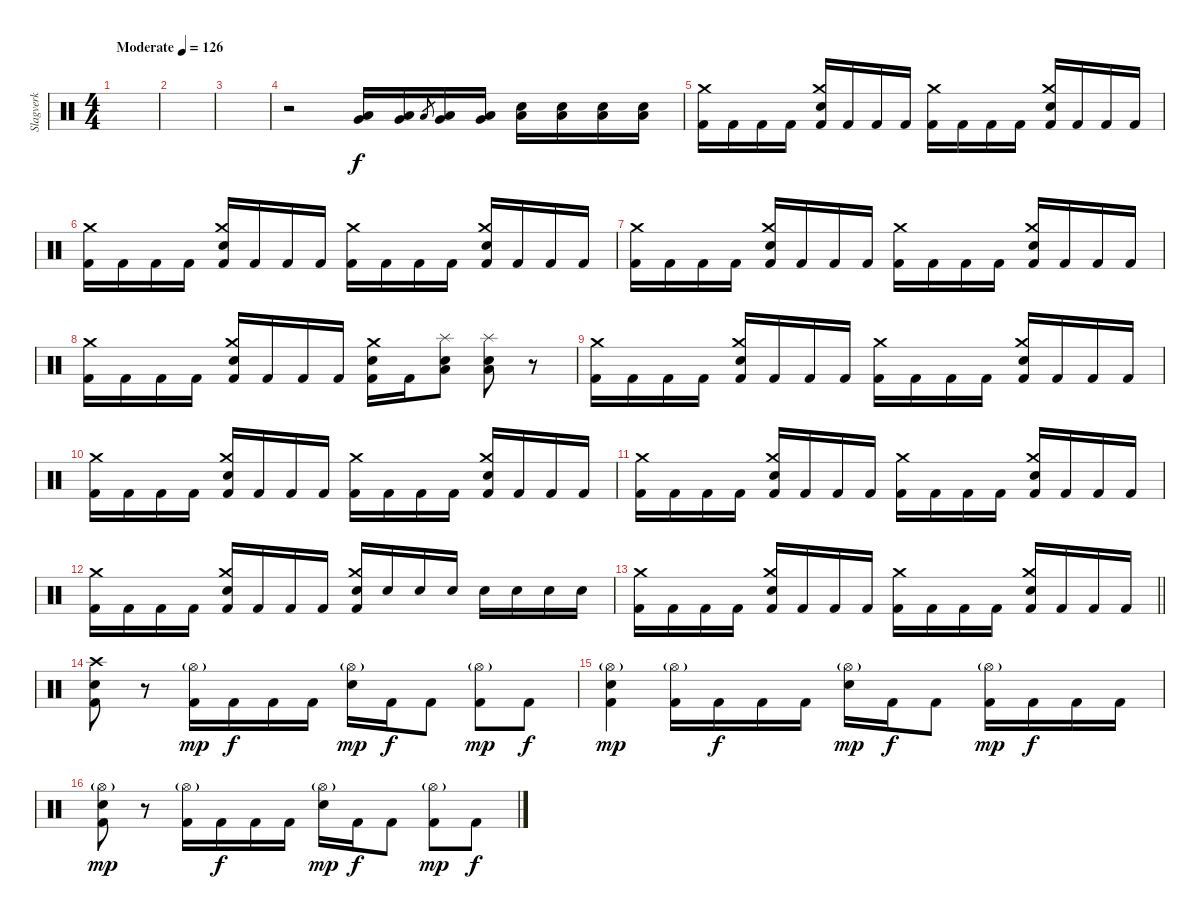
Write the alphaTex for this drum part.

\track ("Slagverk" "Slagverk") {instrument percussion}
\staff {score}
\articulation defaults
\ts (4 4)
\tempo (126 "Moderate")
\clef neutral
\ks c
|
|
|
r.2 ("Very Low Tom (hit)" "Low Floor Tom (hit)").16 ("Very Low Tom (hit)" "Low Floor Tom (hit)").16 "Low Floor Tom (hit)".8{gr} ("Very Low Tom (hit)" "Low Floor Tom (hit)").16 ("Very Low Tom (hit)" "Low Floor Tom (hit)").16 ("Electric Snare (hit)" "Low Floor Tom (hit)").16 ("Electric Snare (hit)" "Low Floor Tom (hit)").16 ("Electric Snare (hit)" "Low Floor Tom (hit)").16 ("Electric Snare (hit)" "Low Floor Tom (hit)").16 |
("Crash medium (hit)" "Kick (hit) 2").16 "Kick (hit) 2".16 "Kick (hit) 2".16 "Kick (hit) 2".16 ("Electric Snare (hit)" "Kick (hit) 2" "Crash medium (hit)").16 "Kick (hit) 2".16 "Kick (hit) 2".16 "Kick (hit) 2".16 ("Crash medium (hit)" "Kick (hit) 2").16 "Kick (hit) 2".16 "Kick (hit) 2".16 "Kick (hit) 2".16 ("Electric Snare (hit)" "Kick (hit) 2" "Crash medium (hit)").16 "Kick (hit) 2".16 "Kick (hit) 2".16 "Kick (hit) 2".16 |
("Crash medium (hit)" "Kick (hit) 2").16 "Kick (hit) 2".16 "Kick (hit) 2".16 "Kick (hit) 2".16 ("Electric Snare (hit)" "Kick (hit) 2" "Crash medium (hit)").16 "Kick (hit) 2".16 "Kick (hit) 2".16 "Kick (hit) 2".16 ("Crash medium (hit)" "Kick (hit) 2").16 "Kick (hit) 2".16 "Kick (hit) 2".16 "Kick (hit) 2".16 ("Electric Snare (hit)" "Kick (hit) 2" "Crash medium (hit)").16 "Kick (hit) 2".16 "Kick (hit) 2".16 "Kick (hit) 2".16 |
("Crash medium (hit)" "Kick (hit) 2").16 "Kick (hit) 2".16 "Kick (hit) 2".16 "Kick (hit) 2".16 ("Electric Snare (hit)" "Kick (hit) 2" "Crash medium (hit)").16 "Kick (hit) 2".16 "Kick (hit) 2".16 "Kick (hit) 2".16 ("Crash medium (hit)" "Kick (hit) 2").16 "Kick (hit) 2".16 "Kick (hit) 2".16 "Kick (hit) 2".16 ("Electric Snare (hit)" "Kick (hit) 2" "Crash medium (hit)").16 "Kick (hit) 2".16 "Kick (hit) 2".16 "Kick (hit) 2".16 |
("Crash medium (hit)" "Kick (hit) 2").16 "Kick (hit) 2".16 "Kick (hit) 2".16 "Kick (hit) 2".16 ("Electric Snare (hit)" "Kick (hit) 2" "Crash medium (hit)").16 "Kick (hit) 2".16 "Kick (hit) 2".16 "Kick (hit) 2".16 ("Electric Snare (hit)" "Kick (hit) 2" "Crash medium (hit)").16 "Kick (hit) 2".16 ("Electric Snare (hit)" "Low Floor Tom (hit)" "Splash (hit)").8 ("Electric Snare (hit)" "Low Floor Tom (hit)" "Splash (hit)").8 r.8 |
("Crash medium (hit)" "Kick (hit) 2").16 "Kick (hit) 2".16 "Kick (hit) 2".16 "Kick (hit) 2".16 ("Electric Snare (hit)" "Kick (hit) 2" "Crash medium (hit)").16 "Kick (hit) 2".16 "Kick (hit) 2".16 "Kick (hit) 2".16 ("Crash medium (hit)" "Kick (hit) 2").16 "Kick (hit) 2".16 "Kick (hit) 2".16 "Kick (hit) 2".16 ("Electric Snare (hit)" "Kick (hit) 2" "Crash medium (hit)").16 "Kick (hit) 2".16 "Kick (hit) 2".16 "Kick (hit) 2".16 |
("Crash medium (hit)" "Kick (hit) 2").16 "Kick (hit) 2".16 "Kick (hit) 2".16 "Kick (hit) 2".16 ("Electric Snare (hit)" "Kick (hit) 2" "Crash medium (hit)").16 "Kick (hit) 2".16 "Kick (hit) 2".16 "Kick (hit) 2".16 ("Crash medium (hit)" "Kick (hit) 2").16 "Kick (hit) 2".16 "Kick (hit) 2".16 "Kick (hit) 2".16 ("Electric Snare (hit)" "Kick (hit) 2" "Crash medium (hit)").16 "Kick (hit) 2".16 "Kick (hit) 2".16 "Kick (hit) 2".16 |
("Crash medium (hit)" "Kick (hit) 2").16 "Kick (hit) 2".16 "Kick (hit) 2".16 "Kick (hit) 2".16 ("Electric Snare (hit)" "Kick (hit) 2" "Crash medium (hit)").16 "Kick (hit) 2".16 "Kick (hit) 2".16 "Kick (hit) 2".16 ("Crash medium (hit)" "Kick (hit) 2").16 "Kick (hit) 2".16 "Kick (hit) 2".16 "Kick (hit) 2".16 ("Electric Snare (hit)" "Kick (hit) 2" "Crash medium (hit)").16 "Kick (hit) 2".16 "Kick (hit) 2".16 "Kick (hit) 2".16 |
("Crash medium (hit)" "Kick (hit) 2").16 "Kick (hit) 2".16 "Kick (hit) 2".16 "Kick (hit) 2".16 ("Electric Snare (hit)" "Kick (hit) 2" "Crash medium (hit)").16 "Kick (hit) 2".16 "Kick (hit) 2".16 "Kick (hit) 2".16 ("Electric Snare (hit)" "Kick (hit) 2" "Crash medium (hit)").16 "Electric Snare (hit)".16 "Electric Snare (hit)".16 "Electric Snare (hit)".16 "Electric Snare (hit)".16 "Electric Snare (hit)".16 "Electric Snare (hit)".16 "Electric Snare (hit)".16 |
\barLineRight lightlight
("Crash medium (hit)" "Kick (hit) 2").16 "Kick (hit) 2".16 "Kick (hit) 2".16 "Kick (hit) 2".16 ("Electric Snare (hit)" "Kick (hit) 2" "Crash medium (hit)").16 "Kick (hit) 2".16 "Kick (hit) 2".16 "Kick (hit) 2".16 ("Crash medium (hit)" "Kick (hit) 2").16 "Kick (hit) 2".16 "Kick (hit) 2".16 "Kick (hit) 2".16 ("Electric Snare (hit)" "Kick (hit) 2" "Crash medium (hit)").16 "Kick (hit) 2".16 "Kick (hit) 2".16 "Kick (hit) 2".16 |
("Crash high (hit)" "Electric Snare (hit)" "Kick (hit) 2").8 r.8 ("Kick (hit) 2" "Hi-Hat (open)"{g}).16{dy mp} "Kick (hit) 2".16{dy f} "Kick (hit) 2".16 "Kick (hit) 2".16 ("Hi-Hat (open)"{g} "Electric Snare (hit)").16{dy mp} "Kick (hit) 2".16{dy f} "Kick (hit) 2".8 ("Kick (hit) 2" "Hi-Hat (open)"{g}).8{dy mp} "Kick (hit) 2".8{dy f} |
("Hi-Hat (open)"{g} "Kick (hit) 2" "Electric Snare (hit)").4{dy mp} ("Kick (hit) 2" "Hi-Hat (open)"{g}).16 "Kick (hit) 2".16{dy f} "Kick (hit) 2".16 "Kick (hit) 2".16 ("Hi-Hat (open)"{g} "Electric Snare (hit)").16{dy mp} "Kick (hit) 2".16{dy f} "Kick (hit) 2".8 ("Kick (hit) 2" "Hi-Hat (open)"{g}).16{dy mp} "Kick (hit) 2".16{dy f} "Kick (hit) 2".16 "Kick (hit) 2".16 |
("Hi-Hat (open)"{g} "Kick (hit) 2" "Electric Snare (hit)").8{dy mp} r.8 ("Kick (hit) 2" "Hi-Hat (open)"{g}).16 "Kick (hit) 2".16{dy f} "Kick (hit) 2".16 "Kick (hit) 2".16 ("Hi-Hat (open)"{g} "Electric Snare (hit)").16{dy mp} "Kick (hit) 2".16{dy f} "Kick (hit) 2".8 ("Kick (hit) 2" "Hi-Hat (open)"{g}).8{dy mp} "Kick (hit) 2".8{dy f}
